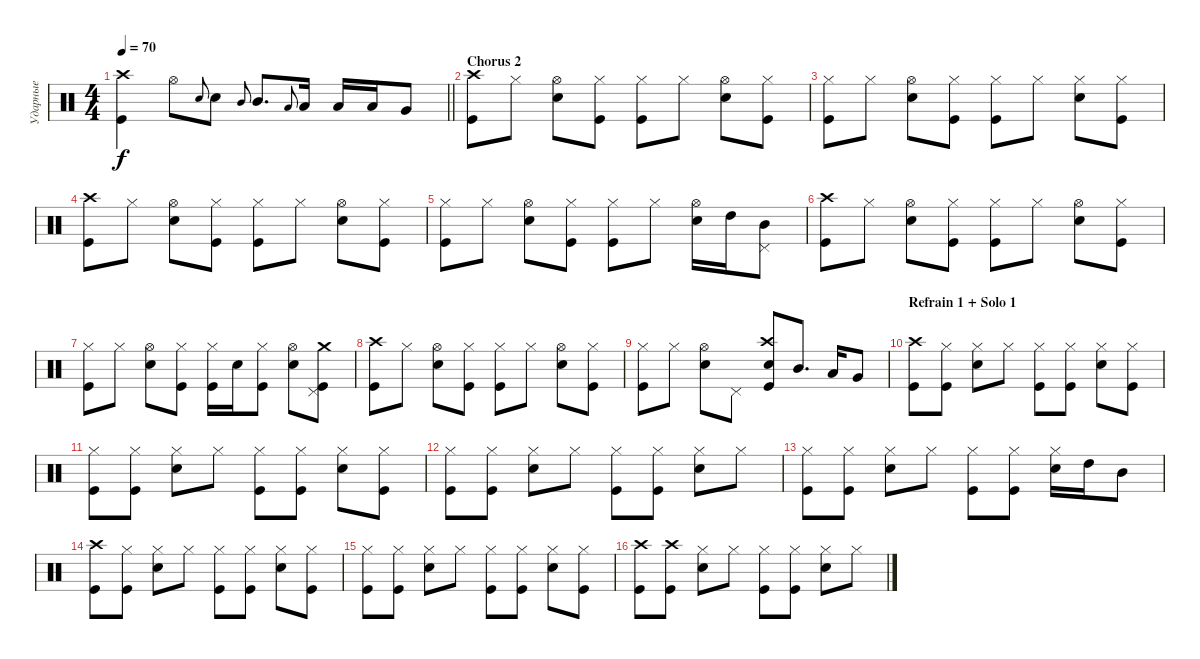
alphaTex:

\track ("Ударные" "Ударные") {instrument percussion}
\staff {score}
\articulation defaults
\ts (4 4)
\tempo 70
\clef neutral
\barLineRight lightlight
\ks c
("Kick (hit)" "Crash high (hit)").4{dy f} "Hi-Hat (open)".8 "Snare (hit) 2".8{gr onbeat} "Snare (hit) 2".8 "Mid Tom (hit)".8{gr onbeat} "Mid Tom (hit)".8{d} "Low Tom (hit)".8{gr onbeat} "Low Tom (hit)".16 "Low Tom (hit)".16 "Low Tom (hit)".16 "Very Low Tom (hit)".8 |
\section ("" "Chorus 2")
("Kick (hit)" "Crash high (hit)").8 "Hi-Hat (closed)".8 ("Hi-Hat (open)" "Snare (hit) 2").8 ("Hi-Hat (closed)" "Kick (hit)").8 ("Hi-Hat (closed)" "Kick (hit)").8 "Hi-Hat (closed)".8 ("Hi-Hat (open)" "Snare (hit) 2").8 ("Hi-Hat (closed)" "Kick (hit)").8 |
("Kick (hit)" "Hi-Hat (closed)").8 "Hi-Hat (closed)".8 ("Hi-Hat (open)" "Snare (hit) 2").8 ("Hi-Hat (closed)" "Kick (hit)").8 ("Hi-Hat (closed)" "Kick (hit)").8 "Hi-Hat (closed)".8 ("Hi-Hat (closed)" "Snare (hit) 2").8 ("Hi-Hat (closed)" "Kick (hit)").8 |
("Kick (hit)" "Crash high (hit)").8 "Hi-Hat (closed)".8 ("Hi-Hat (open)" "Snare (hit) 2").8 ("Hi-Hat (closed)" "Kick (hit)").8 ("Hi-Hat (closed)" "Kick (hit)").8 "Hi-Hat (closed)".8 ("Hi-Hat (open)" "Snare (hit) 2").8 ("Hi-Hat (closed)" "Kick (hit)").8 |
("Kick (hit)" "Hi-Hat (closed)").8 "Hi-Hat (closed)".8 ("Hi-Hat (open)" "Snare (hit) 2").8 ("Hi-Hat (closed)" "Kick (hit)").8 ("Hi-Hat (closed)" "Kick (hit)").8 "Hi-Hat (closed)".8 ("Hi-Hat (open)" "Snare (hit) 2").16 "High Tom (hit)".16 ("Mid Tom (hit)" "Pedal Hi-Hat (hit)").8 |
("Kick (hit)" "Crash high (hit)").8 "Hi-Hat (closed)".8 ("Hi-Hat (open)" "Snare (hit) 2").8 ("Hi-Hat (closed)" "Kick (hit)").8 ("Hi-Hat (closed)" "Kick (hit)").8 "Hi-Hat (closed)".8 ("Hi-Hat (open)" "Snare (hit) 2").8 ("Hi-Hat (closed)" "Kick (hit)").8 |
("Kick (hit)" "Hi-Hat (closed)").8 "Hi-Hat (closed)".8 ("Hi-Hat (open)" "Snare (hit) 2").8 ("Hi-Hat (closed)" "Kick (hit)").8 ("Hi-Hat (closed)" "Kick (hit)").16 "Snare (hit) 2".16 ("Hi-Hat (closed)" "Kick (hit)").8 ("Hi-Hat (open)" "Snare (hit) 2").8 ("Kick (hit)" "Crash medium (hit)" "Pedal Hi-Hat (hit)").8 |
("Kick (hit)" "Crash high (hit)").8 "Hi-Hat (closed)".8 ("Hi-Hat (open)" "Snare (hit) 2").8 ("Hi-Hat (closed)" "Kick (hit)").8 ("Hi-Hat (closed)" "Kick (hit)").8 "Hi-Hat (closed)".8 ("Hi-Hat (open)" "Snare (hit) 2").8 ("Hi-Hat (closed)" "Kick (hit)").8 |
("Kick (hit)" "Hi-Hat (closed)").8 "Hi-Hat (closed)".8 ("Snare (hit) 2" "Hi-Hat (open)").8 "Pedal Hi-Hat (hit)".8 ("Crash high (hit)" "Kick (hit)" "Snare (hit) 2").8 "Mid Tom (hit)".8{d} "Low Tom (hit)".16 "Very Low Tom (hit)".8 |
\section ("" "Refrain 1 + Solo 1")
("Kick (hit)" "Crash high (hit)").8 ("Hi-Hat (closed)" "Kick (hit)").8 ("Hi-Hat (closed)" "Snare (hit) 2").8 "Hi-Hat (closed)".8 ("Hi-Hat (closed)" "Kick (hit)").8 ("Hi-Hat (closed)" "Kick (hit)").8 ("Hi-Hat (closed)" "Snare (hit) 2").8 ("Hi-Hat (closed)" "Kick (hit)").8 |
("Kick (hit)" "Hi-Hat (closed)").8 ("Hi-Hat (closed)" "Kick (hit)").8 ("Hi-Hat (closed)" "Snare (hit) 2").8 "Hi-Hat (closed)".8 ("Hi-Hat (closed)" "Kick (hit)").8 ("Hi-Hat (closed)" "Kick (hit)").8 ("Hi-Hat (closed)" "Snare (hit) 2").8 ("Hi-Hat (closed)" "Kick (hit)").8 |
("Kick (hit)" "Hi-Hat (closed)").8 ("Hi-Hat (closed)" "Kick (hit)").8 ("Hi-Hat (closed)" "Snare (hit) 2").8 "Hi-Hat (closed)".8 ("Hi-Hat (closed)" "Kick (hit)").8 ("Hi-Hat (closed)" "Kick (hit)").8 ("Hi-Hat (closed)" "Snare (hit) 2").8 "Hi-Hat (closed)".8 |
("Kick (hit)" "Hi-Hat (closed)").8 ("Hi-Hat (closed)" "Kick (hit)").8 ("Hi-Hat (closed)" "Snare (hit) 2").8 "Hi-Hat (closed)".8 ("Hi-Hat (closed)" "Kick (hit)").8 ("Hi-Hat (closed)" "Kick (hit)").8 ("Hi-Hat (closed)" "Snare (hit) 2").16 "High Tom (hit)".16 "Mid Tom (hit)".8 |
("Kick (hit)" "Crash high (hit)").8 ("Hi-Hat (closed)" "Kick (hit)").8 ("Hi-Hat (closed)" "Snare (hit) 2").8 "Hi-Hat (closed)".8 ("Hi-Hat (closed)" "Kick (hit)").8 ("Hi-Hat (closed)" "Kick (hit)").8 ("Hi-Hat (closed)" "Snare (hit) 2").8 ("Hi-Hat (closed)" "Kick (hit)").8 |
("Kick (hit)" "Hi-Hat (closed)").8 ("Hi-Hat (closed)" "Kick (hit)").8 ("Hi-Hat (closed)" "Snare (hit) 2").8 "Hi-Hat (closed)".8 ("Hi-Hat (closed)" "Kick (hit)").8 ("Hi-Hat (closed)" "Kick (hit)").8 ("Hi-Hat (closed)" "Snare (hit) 2").8 ("Hi-Hat (closed)" "Kick (hit)").8 |
("Kick (hit)" "Crash high (hit)").8 ("Kick (hit)" "Crash high (hit)").8 ("Hi-Hat (closed)" "Snare (hit) 2").8 "Hi-Hat (closed)".8 ("Hi-Hat (closed)" "Kick (hit)").8 ("Hi-Hat (closed)" "Kick (hit)").8 ("Hi-Hat (closed)" "Snare (hit) 2").8 "Hi-Hat (closed)".8
